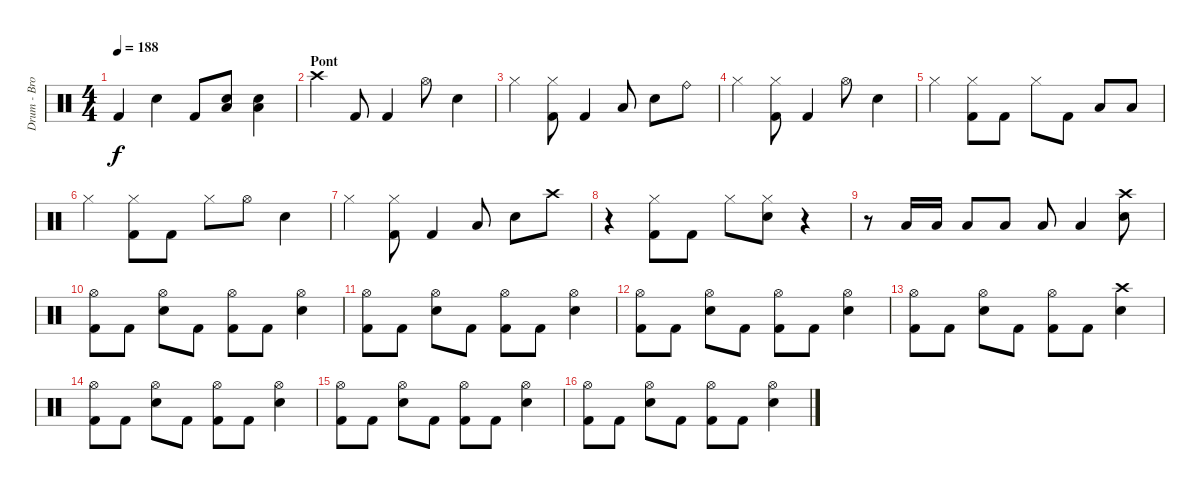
\track ("Drum - Brooks Wackerman" "Drum - Bro") {instrument percussion}
\staff {score}
\articulation defaults
\ts (4 4)
\tempo 188
\clef neutral
\ks c "Kick (hit) 2".4{dy f} "Electric Snare (hit)".4 "Kick (hit) 2".8
("Electric Snare (hit)" "Low Floor Tom (hit)").8 ("Electric Snare (hit)" "Low Floor Tom (hit)").4 |
\section ("" "Pont")
"Crash high (hit)".4 "Kick (hit) 2".8 "Kick (hit) 2".4 "Hi-Hat (open)".8 "Electric Snare (hit)".4 |
"Hi-Hat (closed)".4 ("Hi-Hat (closed)" "Kick (hit) 2").8 "Kick (hit) 2".4 "Low Floor Tom (hit)".8 "Electric Snare (hit)".8 "Ride (bell)".8 |
"Hi-Hat (closed)".4 ("Hi-Hat (closed)" "Kick (hit) 2").8 "Kick (hit) 2".4 "Hi-Hat (open)".8 "Electric Snare (hit)".4 |
"Hi-Hat (closed)".4 ("Hi-Hat (closed)" "Kick (hit) 2").8 "Kick (hit) 2".8 "Hi-Hat (closed)".8 "Kick (hit) 2".8 "Low Floor Tom (hit)".8 "Low Floor Tom (hit)".8 |
"Hi-Hat (closed)".4 ("Hi-Hat (closed)" "Kick (hit) 2").8 "Kick (hit) 2".8 "Hi-Hat (closed)".8 "Hi-Hat (open)".8 "Electric Snare (hit)".4 |
"Hi-Hat (closed)".4 ("Hi-Hat (closed)" "Kick (hit) 2").8 "Kick (hit) 2".4 "Low Floor Tom (hit)".8 "Electric Snare (hit)".8 "Crash high (hit)".8 |
r.4 ("Hi-Hat (closed)" "Kick (hit) 2").8 "Kick (hit) 2".8 "Hi-Hat (closed)".8 ("Hi-Hat (closed)" "Electric Snare (hit)").8 r.4 |
r.8 "Low Floor Tom (hit)".16 "Low Floor Tom (hit)".16 "Low Floor Tom (hit)".8 "Low Floor Tom (hit)".8 "Low Floor Tom (hit)".8 "Low Floor Tom (hit)".4 ("Crash high (hit)" "Electric Snare (hit)").8 |
("Hi-Hat (open)" "Kick (hit) 2").8 "Kick (hit) 2".8 ("Hi-Hat (open)" "Electric Snare (hit)").8 "Kick (hit) 2".8 ("Hi-Hat (open)" "Kick (hit) 2").8 "Kick (hit) 2".8 ("Hi-Hat (open)" "Electric Snare (hit)").4 |
("Hi-Hat (open)" "Kick (hit) 2").8 "Kick (hit) 2".8 ("Hi-Hat (open)" "Electric Snare (hit)").8 "Kick (hit) 2".8 ("Hi-Hat (open)" "Kick (hit) 2").8 "Kick (hit) 2".8 ("Hi-Hat (open)" "Electric Snare (hit)").4 |
("Hi-Hat (open)" "Kick (hit) 2").8 "Kick (hit) 2".8 ("Hi-Hat (open)" "Electric Snare (hit)").8 "Kick (hit) 2".8 ("Hi-Hat (open)" "Kick (hit) 2").8 "Kick (hit) 2".8 ("Hi-Hat (open)" "Electric Snare (hit)").4 |
("Hi-Hat (open)" "Kick (hit) 2").8 "Kick (hit) 2".8 ("Hi-Hat (open)" "Electric Snare (hit)").8 "Kick (hit) 2".8 ("Hi-Hat (open)" "Kick (hit) 2").8 "Kick (hit) 2".8 ("Crash high (hit)" "Electric Snare (hit)").4 |
("Hi-Hat (open)" "Kick (hit) 2").8 "Kick (hit) 2".8 ("Hi-Hat (open)" "Electric Snare (hit)").8 "Kick (hit) 2".8 ("Hi-Hat (open)" "Kick (hit) 2").8 "Kick (hit) 2".8 ("Hi-Hat (open)" "Electric Snare (hit)").4 |
("Hi-Hat (open)" "Kick (hit) 2").8 "Kick (hit) 2".8 ("Hi-Hat (open)" "Electric Snare (hit)").8 "Kick (hit) 2".8 ("Hi-Hat (open)" "Kick (hit) 2").8 "Kick (hit) 2".8 ("Hi-Hat (open)" "Electric Snare (hit)").4 |
("Hi-Hat (open)" "Kick (hit) 2").8 "Kick (hit) 2".8 ("Hi-Hat (open)" "Electric Snare (hit)").8 "Kick (hit) 2".8 ("Hi-Hat (open)" "Kick (hit) 2").8 "Kick (hit) 2".8 ("Hi-Hat (open)" "Electric Snare (hit)").4
